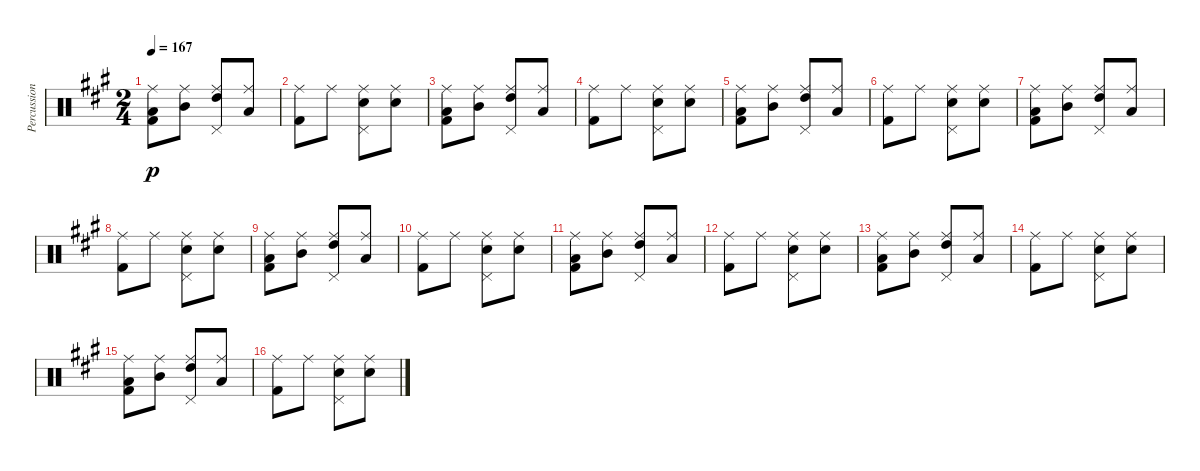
\track ("Percussion" "Percussion") {instrument percussion}
\staff {score}
\articulation defaults
\ts (2 4)
\tempo 167
\clef neutral
\ks a
("Ride (middle)" "Low Tom (hit)" "Kick (hit) 2").8{dy p} ("Ride (middle)" "Mid Tom (hit)").8 ("Ride (middle)" "High Tom (hit)" "Pedal Hi-Hat (hit)").8 ("Ride (middle)" "Low Tom (hit)").8 |
("Ride (middle)" "Kick (hit) 2").8 "Ride (middle)".8 ("Ride (middle)" "Pedal Hi-Hat (hit)" "Snare (hit) 2").8 ("Ride (middle)" "Snare (hit) 2").8 |
("Ride (middle)" "Low Tom (hit)" "Kick (hit) 2").8 ("Ride (middle)" "Mid Tom (hit)").8 ("Ride (middle)" "High Tom (hit)" "Pedal Hi-Hat (hit)").8 ("Ride (middle)" "Low Tom (hit)").8 |
("Ride (middle)" "Kick (hit) 2").8 "Ride (middle)".8 ("Ride (middle)" "Pedal Hi-Hat (hit)" "Snare (hit) 2").8 ("Ride (middle)" "Snare (hit) 2").8 |
("Ride (middle)" "Low Tom (hit)" "Kick (hit) 2").8 ("Ride (middle)" "Mid Tom (hit)").8 ("Ride (middle)" "High Tom (hit)" "Pedal Hi-Hat (hit)").8 ("Ride (middle)" "Low Tom (hit)").8 |
("Ride (middle)" "Kick (hit) 2").8 "Ride (middle)".8 ("Ride (middle)" "Pedal Hi-Hat (hit)" "Snare (hit) 2").8 ("Ride (middle)" "Snare (hit) 2").8 |
("Ride (middle)" "Low Tom (hit)" "Kick (hit) 2").8 ("Ride (middle)" "Mid Tom (hit)").8 ("Ride (middle)" "High Tom (hit)" "Pedal Hi-Hat (hit)").8 ("Ride (middle)" "Low Tom (hit)").8 |
("Ride (middle)" "Kick (hit) 2").8 "Ride (middle)".8 ("Ride (middle)" "Pedal Hi-Hat (hit)" "Snare (hit) 2").8 ("Ride (middle)" "Snare (hit) 2").8 |
("Ride (middle)" "Low Tom (hit)" "Kick (hit) 2").8 ("Ride (middle)" "Mid Tom (hit)").8 ("Ride (middle)" "High Tom (hit)" "Pedal Hi-Hat (hit)").8 ("Ride (middle)" "Low Tom (hit)").8 |
("Ride (middle)" "Kick (hit) 2").8 "Ride (middle)".8 ("Ride (middle)" "Pedal Hi-Hat (hit)" "Snare (hit) 2").8 ("Ride (middle)" "Snare (hit) 2").8 |
("Ride (middle)" "Low Tom (hit)" "Kick (hit) 2").8 ("Ride (middle)" "Mid Tom (hit)").8 ("Ride (middle)" "High Tom (hit)" "Pedal Hi-Hat (hit)").8 ("Ride (middle)" "Low Tom (hit)").8 |
("Ride (middle)" "Kick (hit) 2").8 "Ride (middle)".8 ("Ride (middle)" "Pedal Hi-Hat (hit)" "Snare (hit) 2").8 ("Ride (middle)" "Snare (hit) 2").8 |
("Ride (middle)" "Low Tom (hit)" "Kick (hit) 2").8 ("Ride (middle)" "Mid Tom (hit)").8 ("Ride (middle)" "High Tom (hit)" "Pedal Hi-Hat (hit)").8 ("Ride (middle)" "Low Tom (hit)").8 |
("Ride (middle)" "Kick (hit) 2").8 "Ride (middle)".8 ("Ride (middle)" "Pedal Hi-Hat (hit)" "Snare (hit) 2").8 ("Ride (middle)" "Snare (hit) 2").8 |
("Ride (middle)" "Low Tom (hit)" "Kick (hit) 2").8 ("Ride (middle)" "Mid Tom (hit)").8 ("Ride (middle)" "High Tom (hit)" "Pedal Hi-Hat (hit)").8 ("Ride (middle)" "Low Tom (hit)").8 |
("Ride (middle)" "Kick (hit) 2").8 "Ride (middle)".8 ("Ride (middle)" "Pedal Hi-Hat (hit)" "Snare (hit) 2").8 ("Ride (middle)" "Snare (hit) 2").8
